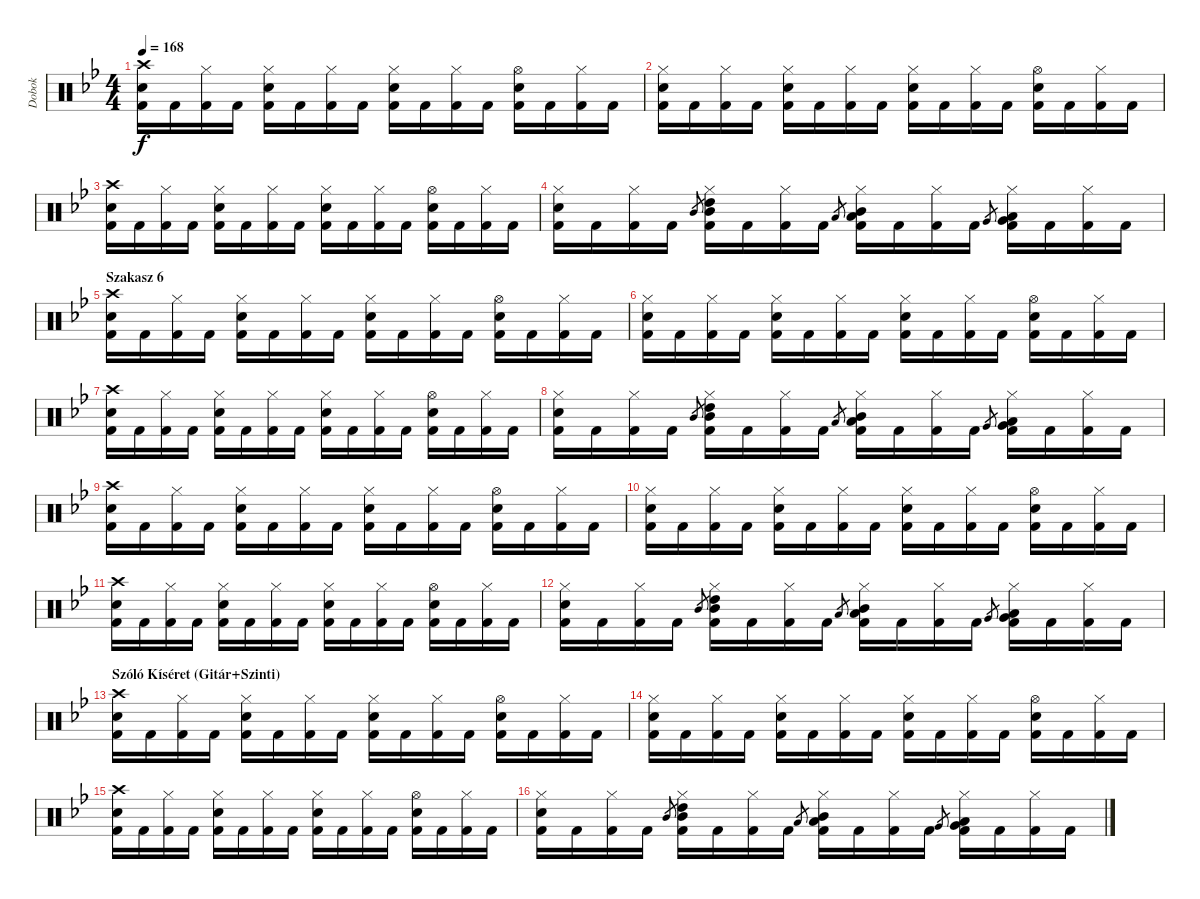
\track ("Dobok" "Dobok") {instrument percussion}
\staff {score}
\articulation defaults
\ts (4 4)
\tempo 168
\clef neutral
\ks gminor
("Crash high (hit)" "Snare (hit) 2" "Kick (hit) 2").16{dy f} "Kick (hit) 2".16 ("Hi-Hat (closed)" "Kick (hit) 2").16 "Kick (hit) 2".16 ("Hi-Hat (closed)" "Snare (hit) 2" "Kick (hit) 2").16 "Kick (hit) 2".16 ("Hi-Hat (closed)" "Kick (hit) 2").16 "Kick (hit) 2".16 ("Hi-Hat (closed)" "Snare (hit) 2" "Kick (hit) 2").16 "Kick (hit) 2".16 ("Hi-Hat (closed)" "Kick (hit) 2").16 "Kick (hit) 2".16 ("Hi-Hat (open)" "Snare (hit) 2" "Kick (hit) 2").16 "Kick (hit) 2".16 ("Hi-Hat (closed)" "Kick (hit) 2").16 "Kick (hit) 2".16 |
("Hi-Hat (closed)" "Snare (hit) 2" "Kick (hit) 2").16 "Kick (hit) 2".16 ("Hi-Hat (closed)" "Kick (hit) 2").16 "Kick (hit) 2".16 ("Hi-Hat (closed)" "Snare (hit) 2" "Kick (hit) 2").16 "Kick (hit) 2".16 ("Hi-Hat (closed)" "Kick (hit) 2").16 "Kick (hit) 2".16 ("Hi-Hat (closed)" "Snare (hit) 2" "Kick (hit) 2").16 "Kick (hit) 2".16 ("Hi-Hat (closed)" "Kick (hit) 2").16 "Kick (hit) 2".16 ("Hi-Hat (open)" "Snare (hit) 2" "Kick (hit) 2").16 "Kick (hit) 2".16 ("Hi-Hat (closed)" "Kick (hit) 2").16 "Kick (hit) 2".16 |
("Crash high (hit)" "Snare (hit) 2" "Kick (hit) 2").16 "Kick (hit) 2".16 ("Hi-Hat (closed)" "Kick (hit) 2").16 "Kick (hit) 2".16 ("Hi-Hat (closed)" "Snare (hit) 2" "Kick (hit) 2").16 "Kick (hit) 2".16 ("Hi-Hat (closed)" "Kick (hit) 2").16 "Kick (hit) 2".16 ("Hi-Hat (closed)" "Snare (hit) 2" "Kick (hit) 2").16 "Kick (hit) 2".16 ("Hi-Hat (closed)" "Kick (hit) 2").16 "Kick (hit) 2".16 ("Hi-Hat (open)" "Snare (hit) 2" "Kick (hit) 2").16 "Kick (hit) 2".16 ("Hi-Hat (closed)" "Kick (hit) 2").16 "Kick (hit) 2".16 |
("Hi-Hat (closed)" "Snare (hit) 2" "Kick (hit) 2").16 "Kick (hit) 2".16 ("Hi-Hat (closed)" "Kick (hit) 2").16 "Kick (hit) 2".16 "Mid Tom (hit)".8{gr} ("Hi-Hat (closed)" "High Tom (hit)" "Mid Tom (hit)" "Kick (hit) 2").16 "Kick (hit) 2".16 ("Hi-Hat (closed)" "Kick (hit) 2").16 "Kick (hit) 2".16 "Low Tom (hit)".8{gr} ("Hi-Hat (closed)" "Mid Tom (hit)" "Low Tom (hit)" "Kick (hit) 2").16 "Kick (hit) 2".16 ("Hi-Hat (closed)" "Kick (hit) 2").16 "Kick (hit) 2".16 "Very Low Tom (hit)".8{gr} ("Hi-Hat (closed)" "Low Tom (hit)" "Very Low Tom (hit)" "Kick (hit) 2").16 "Kick (hit) 2".16 ("Hi-Hat (closed)" "Kick (hit) 2").16 "Kick (hit) 2".16 |
\section ("" "Szakasz 6")
("Crash high (hit)" "Snare (hit) 2" "Kick (hit) 2").16 "Kick (hit) 2".16 ("Hi-Hat (closed)" "Kick (hit) 2").16 "Kick (hit) 2".16 ("Hi-Hat (closed)" "Snare (hit) 2" "Kick (hit) 2").16 "Kick (hit) 2".16 ("Hi-Hat (closed)" "Kick (hit) 2").16 "Kick (hit) 2".16 ("Hi-Hat (closed)" "Snare (hit) 2" "Kick (hit) 2").16 "Kick (hit) 2".16 ("Hi-Hat (closed)" "Kick (hit) 2").16 "Kick (hit) 2".16 ("Hi-Hat (open)" "Snare (hit) 2" "Kick (hit) 2").16 "Kick (hit) 2".16 ("Hi-Hat (closed)" "Kick (hit) 2").16 "Kick (hit) 2".16 |
("Hi-Hat (closed)" "Snare (hit) 2" "Kick (hit) 2").16 "Kick (hit) 2".16 ("Hi-Hat (closed)" "Kick (hit) 2").16 "Kick (hit) 2".16 ("Hi-Hat (closed)" "Snare (hit) 2" "Kick (hit) 2").16 "Kick (hit) 2".16 ("Hi-Hat (closed)" "Kick (hit) 2").16 "Kick (hit) 2".16 ("Hi-Hat (closed)" "Snare (hit) 2" "Kick (hit) 2").16 "Kick (hit) 2".16 ("Hi-Hat (closed)" "Kick (hit) 2").16 "Kick (hit) 2".16 ("Hi-Hat (open)" "Snare (hit) 2" "Kick (hit) 2").16 "Kick (hit) 2".16 ("Hi-Hat (closed)" "Kick (hit) 2").16 "Kick (hit) 2".16 |
("Crash high (hit)" "Snare (hit) 2" "Kick (hit) 2").16 "Kick (hit) 2".16 ("Hi-Hat (closed)" "Kick (hit) 2").16 "Kick (hit) 2".16 ("Hi-Hat (closed)" "Snare (hit) 2" "Kick (hit) 2").16 "Kick (hit) 2".16 ("Hi-Hat (closed)" "Kick (hit) 2").16 "Kick (hit) 2".16 ("Hi-Hat (closed)" "Snare (hit) 2" "Kick (hit) 2").16 "Kick (hit) 2".16 ("Hi-Hat (closed)" "Kick (hit) 2").16 "Kick (hit) 2".16 ("Hi-Hat (open)" "Snare (hit) 2" "Kick (hit) 2").16 "Kick (hit) 2".16 ("Hi-Hat (closed)" "Kick (hit) 2").16 "Kick (hit) 2".16 |
("Hi-Hat (closed)" "Snare (hit) 2" "Kick (hit) 2").16 "Kick (hit) 2".16 ("Hi-Hat (closed)" "Kick (hit) 2").16 "Kick (hit) 2".16 "Mid Tom (hit)".8{gr} ("Hi-Hat (closed)" "High Tom (hit)" "Mid Tom (hit)" "Kick (hit) 2").16 "Kick (hit) 2".16 ("Hi-Hat (closed)" "Kick (hit) 2").16 "Kick (hit) 2".16 "Low Tom (hit)".8{gr} ("Hi-Hat (closed)" "Mid Tom (hit)" "Low Tom (hit)" "Kick (hit) 2").16 "Kick (hit) 2".16 ("Hi-Hat (closed)" "Kick (hit) 2").16 "Kick (hit) 2".16 "Very Low Tom (hit)".8{gr} ("Hi-Hat (closed)" "Low Tom (hit)" "Very Low Tom (hit)" "Kick (hit) 2").16 "Kick (hit) 2".16 ("Hi-Hat (closed)" "Kick (hit) 2").16 "Kick (hit) 2".16 |
("Crash high (hit)" "Snare (hit) 2" "Kick (hit) 2").16 "Kick (hit) 2".16 ("Hi-Hat (closed)" "Kick (hit) 2").16 "Kick (hit) 2".16 ("Hi-Hat (closed)" "Snare (hit) 2" "Kick (hit) 2").16 "Kick (hit) 2".16 ("Hi-Hat (closed)" "Kick (hit) 2").16 "Kick (hit) 2".16 ("Hi-Hat (closed)" "Snare (hit) 2" "Kick (hit) 2").16 "Kick (hit) 2".16 ("Hi-Hat (closed)" "Kick (hit) 2").16 "Kick (hit) 2".16 ("Hi-Hat (open)" "Snare (hit) 2" "Kick (hit) 2").16 "Kick (hit) 2".16 ("Hi-Hat (closed)" "Kick (hit) 2").16 "Kick (hit) 2".16 |
("Hi-Hat (closed)" "Snare (hit) 2" "Kick (hit) 2").16 "Kick (hit) 2".16 ("Hi-Hat (closed)" "Kick (hit) 2").16 "Kick (hit) 2".16 ("Hi-Hat (closed)" "Snare (hit) 2" "Kick (hit) 2").16 "Kick (hit) 2".16 ("Hi-Hat (closed)" "Kick (hit) 2").16 "Kick (hit) 2".16 ("Hi-Hat (closed)" "Snare (hit) 2" "Kick (hit) 2").16 "Kick (hit) 2".16 ("Hi-Hat (closed)" "Kick (hit) 2").16 "Kick (hit) 2".16 ("Hi-Hat (open)" "Snare (hit) 2" "Kick (hit) 2").16 "Kick (hit) 2".16 ("Hi-Hat (closed)" "Kick (hit) 2").16 "Kick (hit) 2".16 |
("Crash high (hit)" "Snare (hit) 2" "Kick (hit) 2").16 "Kick (hit) 2".16 ("Hi-Hat (closed)" "Kick (hit) 2").16 "Kick (hit) 2".16 ("Hi-Hat (closed)" "Snare (hit) 2" "Kick (hit) 2").16 "Kick (hit) 2".16 ("Hi-Hat (closed)" "Kick (hit) 2").16 "Kick (hit) 2".16 ("Hi-Hat (closed)" "Snare (hit) 2" "Kick (hit) 2").16 "Kick (hit) 2".16 ("Hi-Hat (closed)" "Kick (hit) 2").16 "Kick (hit) 2".16 ("Hi-Hat (open)" "Snare (hit) 2" "Kick (hit) 2").16 "Kick (hit) 2".16 ("Hi-Hat (closed)" "Kick (hit) 2").16 "Kick (hit) 2".16 |
("Hi-Hat (closed)" "Snare (hit) 2" "Kick (hit) 2").16 "Kick (hit) 2".16 ("Hi-Hat (closed)" "Kick (hit) 2").16 "Kick (hit) 2".16 "Mid Tom (hit)".8{gr} ("Hi-Hat (closed)" "High Tom (hit)" "Mid Tom (hit)" "Kick (hit) 2").16 "Kick (hit) 2".16 ("Hi-Hat (closed)" "Kick (hit) 2").16 "Kick (hit) 2".16 "Low Tom (hit)".8{gr} ("Hi-Hat (closed)" "Mid Tom (hit)" "Low Tom (hit)" "Kick (hit) 2").16 "Kick (hit) 2".16 ("Hi-Hat (closed)" "Kick (hit) 2").16 "Kick (hit) 2".16 "Very Low Tom (hit)".8{gr} ("Hi-Hat (closed)" "Low Tom (hit)" "Very Low Tom (hit)" "Kick (hit) 2").16 "Kick (hit) 2".16 ("Hi-Hat (closed)" "Kick (hit) 2").16 "Kick (hit) 2".16 |
\section ("" "Szóló Kíséret (Gitár+Szinti)")
("Crash high (hit)" "Snare (hit) 2" "Kick (hit) 2").16 "Kick (hit) 2".16 ("Hi-Hat (closed)" "Kick (hit) 2").16 "Kick (hit) 2".16 ("Hi-Hat (closed)" "Snare (hit) 2" "Kick (hit) 2").16 "Kick (hit) 2".16 ("Hi-Hat (closed)" "Kick (hit) 2").16 "Kick (hit) 2".16 ("Hi-Hat (closed)" "Snare (hit) 2" "Kick (hit) 2").16 "Kick (hit) 2".16 ("Hi-Hat (closed)" "Kick (hit) 2").16 "Kick (hit) 2".16 ("Hi-Hat (open)" "Snare (hit) 2" "Kick (hit) 2").16 "Kick (hit) 2".16 ("Hi-Hat (closed)" "Kick (hit) 2").16 "Kick (hit) 2".16 |
("Hi-Hat (closed)" "Snare (hit) 2" "Kick (hit) 2").16 "Kick (hit) 2".16 ("Hi-Hat (closed)" "Kick (hit) 2").16 "Kick (hit) 2".16 ("Hi-Hat (closed)" "Snare (hit) 2" "Kick (hit) 2").16 "Kick (hit) 2".16 ("Hi-Hat (closed)" "Kick (hit) 2").16 "Kick (hit) 2".16 ("Hi-Hat (closed)" "Snare (hit) 2" "Kick (hit) 2").16 "Kick (hit) 2".16 ("Hi-Hat (closed)" "Kick (hit) 2").16 "Kick (hit) 2".16 ("Hi-Hat (open)" "Snare (hit) 2" "Kick (hit) 2").16 "Kick (hit) 2".16 ("Hi-Hat (closed)" "Kick (hit) 2").16 "Kick (hit) 2".16 |
("Crash high (hit)" "Snare (hit) 2" "Kick (hit) 2").16 "Kick (hit) 2".16 ("Hi-Hat (closed)" "Kick (hit) 2").16 "Kick (hit) 2".16 ("Hi-Hat (closed)" "Snare (hit) 2" "Kick (hit) 2").16 "Kick (hit) 2".16 ("Hi-Hat (closed)" "Kick (hit) 2").16 "Kick (hit) 2".16 ("Hi-Hat (closed)" "Snare (hit) 2" "Kick (hit) 2").16 "Kick (hit) 2".16 ("Hi-Hat (closed)" "Kick (hit) 2").16 "Kick (hit) 2".16 ("Hi-Hat (open)" "Snare (hit) 2" "Kick (hit) 2").16 "Kick (hit) 2".16 ("Hi-Hat (closed)" "Kick (hit) 2").16 "Kick (hit) 2".16 |
("Hi-Hat (closed)" "Snare (hit) 2" "Kick (hit) 2").16 "Kick (hit) 2".16 ("Hi-Hat (closed)" "Kick (hit) 2").16 "Kick (hit) 2".16 "Mid Tom (hit)".8{gr} ("Hi-Hat (closed)" "High Tom (hit)" "Mid Tom (hit)" "Kick (hit) 2").16 "Kick (hit) 2".16 ("Hi-Hat (closed)" "Kick (hit) 2").16 "Kick (hit) 2".16 "Low Tom (hit)".8{gr} ("Hi-Hat (closed)" "Mid Tom (hit)" "Low Tom (hit)" "Kick (hit) 2").16 "Kick (hit) 2".16 ("Hi-Hat (closed)" "Kick (hit) 2").16 "Kick (hit) 2".16 "Very Low Tom (hit)".8{gr} ("Hi-Hat (closed)" "Low Tom (hit)" "Very Low Tom (hit)" "Kick (hit) 2").16 "Kick (hit) 2".16 ("Hi-Hat (closed)" "Kick (hit) 2").16 "Kick (hit) 2".16
